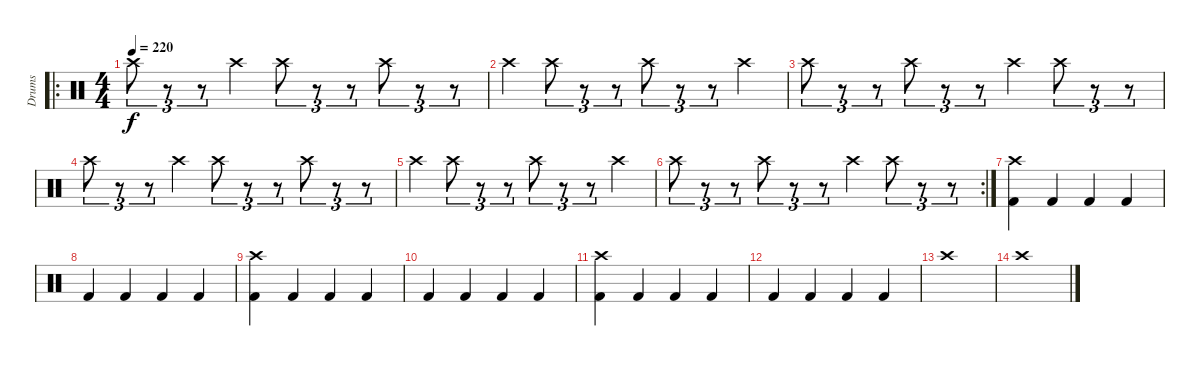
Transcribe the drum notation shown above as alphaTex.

\track ("Drums" "Drums") {instrument percussion}
\staff {score}
\articulation defaults
\ro
\ts (4 4)
\tempo 220
\clef neutral
\ks c "Crash high (hit)".8{tu (3 2) dy f}
r.8{tu (3 2)} r.8{tu (3 2)} "Crash high (hit)".4 "Crash high (hit)".8{tu (3 2)} r.8{tu (3 2)} r.8{tu (3 2)} "Crash high (hit)".8{tu (3 2)} r.8{tu (3 2)} r.8{tu (3 2)} |
"Crash high (hit)".4 "Crash high (hit)".8{tu (3 2)} r.8{tu (3 2)} r.8{tu (3 2)} "Crash high (hit)".8{tu (3 2)} r.8{tu (3 2)} r.8{tu (3 2)} "Crash high (hit)".4 |
"Crash high (hit)".8{tu (3 2)} r.8{tu (3 2)} r.8{tu (3 2)} "Crash high (hit)".8{tu (3 2)} r.8{tu (3 2)} r.8{tu (3 2)} "Crash high (hit)".4 "Crash high (hit)".8{tu (3 2)} r.8{tu (3 2)} r.8{tu (3 2)} |
"Crash high (hit)".8{tu (3 2)} r.8{tu (3 2)} r.8{tu (3 2)} "Crash high (hit)".4 "Crash high (hit)".8{tu (3 2)} r.8{tu (3 2)} r.8{tu (3 2)} "Crash high (hit)".8{tu (3 2)} r.8{tu (3 2)} r.8{tu (3 2)} |
"Crash high (hit)".4 "Crash high (hit)".8{tu (3 2)} r.8{tu (3 2)} r.8{tu (3 2)} "Crash high (hit)".8{tu (3 2)} r.8{tu (3 2)} r.8{tu (3 2)} "Crash high (hit)".4 |
\rc 2 "Crash high (hit)".8{tu (3 2)}
r.8{tu (3 2)} r.8{tu (3 2)} "Crash high (hit)".8{tu (3 2)} r.8{tu (3 2)} r.8{tu (3 2)} "Crash high (hit)".4 "Crash high (hit)".8{tu (3 2)} r.8{tu (3 2)} r.8{tu (3 2)} |
("Kick (hit) 2" "Crash high (hit)").4 "Kick (hit) 2".4 "Kick (hit) 2".4 "Kick (hit) 2".4 |
"Kick (hit) 2".4 "Kick (hit) 2".4 "Kick (hit) 2".4 "Kick (hit) 2".4 |
("Kick (hit) 2" "Crash high (hit)").4 "Kick (hit) 2".4 "Kick (hit) 2".4 "Kick (hit) 2".4 |
"Kick (hit) 2".4 "Kick (hit) 2".4 "Kick (hit) 2".4 "Kick (hit) 2".4 |
("Kick (hit) 2" "Crash high (hit)").4 "Kick (hit) 2".4 "Kick (hit) 2".4 "Kick (hit) 2".4 |
"Kick (hit) 2".4 "Kick (hit) 2".4 "Kick (hit) 2".4 "Kick (hit) 2".4 |
"Crash high (hit)".1 |
"Crash high (hit)".1
